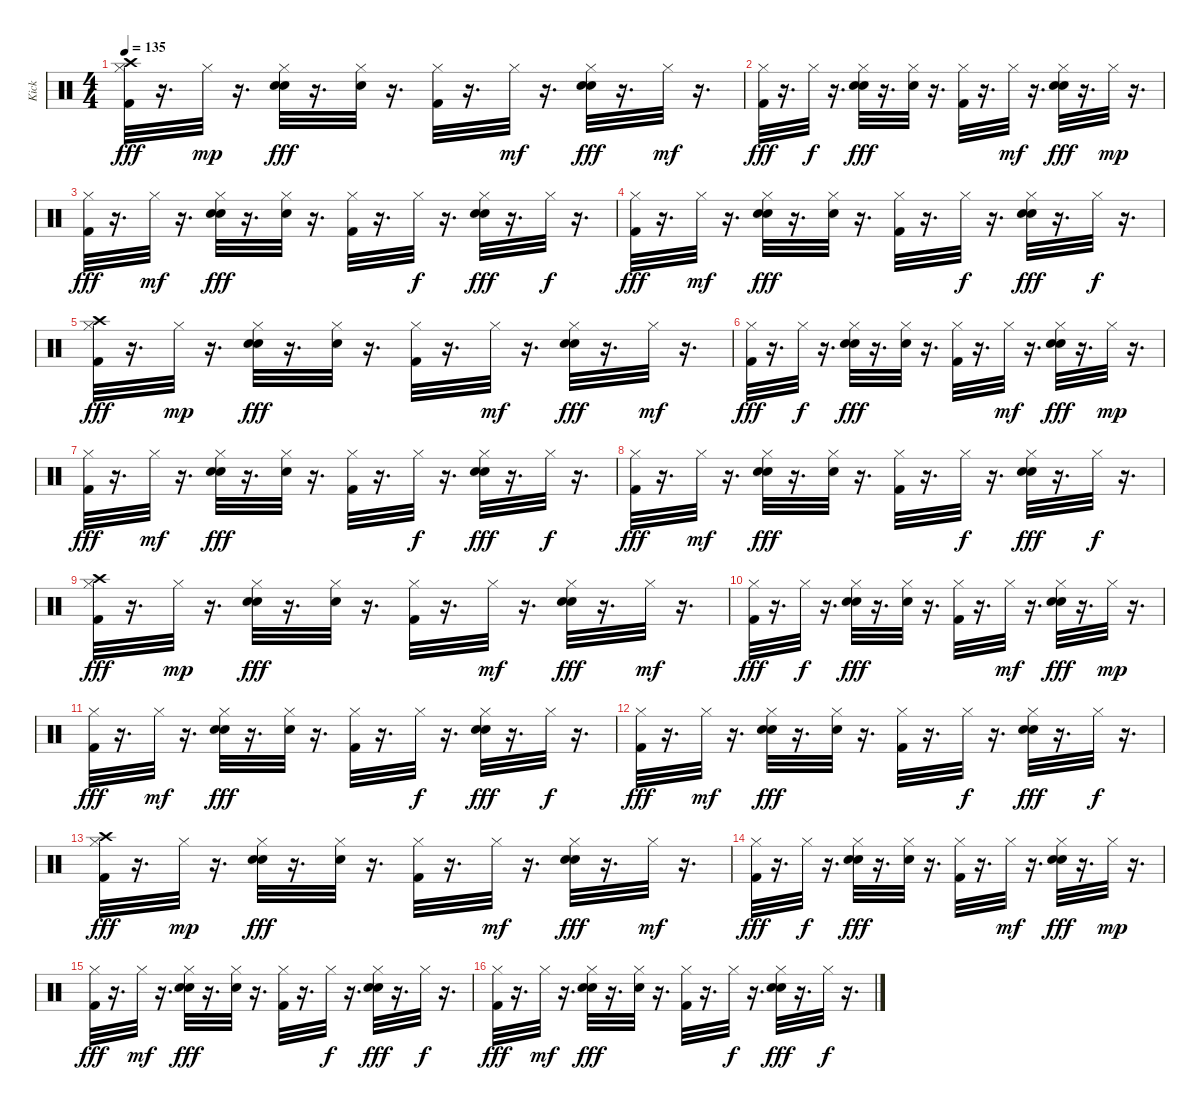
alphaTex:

\track ("Kick" "Kick") {instrument percussion}
\staff {score}
\articulation defaults
\ts (4 4)
\tempo 135
\clef neutral
\ks c
("Kick (hit) 2" "Hi-Hat (closed)" "Crash high (hit)").32{dy fff} r.16{d} "Hi-Hat (closed)".32{dy mp} r.16{d} ("Electric Snare (hit)" "Hi-Hat (closed)" "Hand Clap (hit)").32{dy fff} r.16{d} ("Hi-Hat (closed)" "Hand Clap (hit)").32 r.16{d} ("Kick (hit) 2" "Hi-Hat (closed)").32 r.16{d} "Hi-Hat (closed)".32{dy mf} r.16{d} ("Electric Snare (hit)" "Hi-Hat (closed)" "Hand Clap (hit)").32{dy fff} r.16{d} "Hi-Hat (closed)".32{dy mf} r.16{d} |
("Kick (hit) 2" "Hi-Hat (closed)").32{dy fff} r.16{d} "Hi-Hat (closed)".32{dy f} r.16{d} ("Electric Snare (hit)" "Hi-Hat (closed)" "Hand Clap (hit)").32{dy fff} r.16{d} ("Hi-Hat (closed)" "Hand Clap (hit)").32 r.16{d} ("Kick (hit) 2" "Hi-Hat (closed)").32 r.16{d} "Hi-Hat (closed)".32{dy mf} r.16{d} ("Electric Snare (hit)" "Hi-Hat (closed)" "Hand Clap (hit)").32{dy fff} r.16{d} "Hi-Hat (closed)".32{dy mp} r.16{d} |
("Kick (hit) 2" "Hi-Hat (closed)").32{dy fff} r.16{d} "Hi-Hat (closed)".32{dy mf} r.16{d} ("Electric Snare (hit)" "Hi-Hat (closed)" "Hand Clap (hit)").32{dy fff} r.16{d} ("Hi-Hat (closed)" "Hand Clap (hit)").32 r.16{d} ("Kick (hit) 2" "Hi-Hat (closed)").32 r.16{d} "Hi-Hat (closed)".32{dy f} r.16{d} ("Electric Snare (hit)" "Hi-Hat (closed)" "Hand Clap (hit)").32{dy fff} r.16{d} "Hi-Hat (closed)".32{dy f} r.16{d} |
("Kick (hit) 2" "Hi-Hat (closed)").32{dy fff} r.16{d} "Hi-Hat (closed)".32{dy mf} r.16{d} ("Electric Snare (hit)" "Hi-Hat (closed)" "Hand Clap (hit)").32{dy fff} r.16{d} ("Hi-Hat (closed)" "Hand Clap (hit)").32 r.16{d} ("Kick (hit) 2" "Hi-Hat (closed)").32 r.16{d} "Hi-Hat (closed)".32{dy f} r.16{d} ("Electric Snare (hit)" "Hi-Hat (closed)" "Hand Clap (hit)").32{dy fff} r.16{d} "Hi-Hat (closed)".32{dy f} r.16{d} |
("Kick (hit) 2" "Hi-Hat (closed)" "Crash high (hit)").32{dy fff} r.16{d} "Hi-Hat (closed)".32{dy mp} r.16{d} ("Electric Snare (hit)" "Hi-Hat (closed)" "Hand Clap (hit)").32{dy fff} r.16{d} ("Hi-Hat (closed)" "Hand Clap (hit)").32 r.16{d} ("Kick (hit) 2" "Hi-Hat (closed)").32 r.16{d} "Hi-Hat (closed)".32{dy mf} r.16{d} ("Electric Snare (hit)" "Hi-Hat (closed)" "Hand Clap (hit)").32{dy fff} r.16{d} "Hi-Hat (closed)".32{dy mf} r.16{d} |
("Kick (hit) 2" "Hi-Hat (closed)").32{dy fff} r.16{d} "Hi-Hat (closed)".32{dy f} r.16{d} ("Electric Snare (hit)" "Hi-Hat (closed)" "Hand Clap (hit)").32{dy fff} r.16{d} ("Hi-Hat (closed)" "Hand Clap (hit)").32 r.16{d} ("Kick (hit) 2" "Hi-Hat (closed)").32 r.16{d} "Hi-Hat (closed)".32{dy mf} r.16{d} ("Electric Snare (hit)" "Hi-Hat (closed)" "Hand Clap (hit)").32{dy fff} r.16{d} "Hi-Hat (closed)".32{dy mp} r.16{d} |
("Kick (hit) 2" "Hi-Hat (closed)").32{dy fff} r.16{d} "Hi-Hat (closed)".32{dy mf} r.16{d} ("Electric Snare (hit)" "Hi-Hat (closed)" "Hand Clap (hit)").32{dy fff} r.16{d} ("Hi-Hat (closed)" "Hand Clap (hit)").32 r.16{d} ("Kick (hit) 2" "Hi-Hat (closed)").32 r.16{d} "Hi-Hat (closed)".32{dy f} r.16{d} ("Electric Snare (hit)" "Hi-Hat (closed)" "Hand Clap (hit)").32{dy fff} r.16{d} "Hi-Hat (closed)".32{dy f} r.16{d} |
("Kick (hit) 2" "Hi-Hat (closed)").32{dy fff} r.16{d} "Hi-Hat (closed)".32{dy mf} r.16{d} ("Electric Snare (hit)" "Hi-Hat (closed)" "Hand Clap (hit)").32{dy fff} r.16{d} ("Hi-Hat (closed)" "Hand Clap (hit)").32 r.16{d} ("Kick (hit) 2" "Hi-Hat (closed)").32 r.16{d} "Hi-Hat (closed)".32{dy f} r.16{d} ("Electric Snare (hit)" "Hi-Hat (closed)" "Hand Clap (hit)").32{dy fff} r.16{d} "Hi-Hat (closed)".32{dy f} r.16{d} |
("Kick (hit) 2" "Hi-Hat (closed)" "Crash high (hit)").32{dy fff} r.16{d} "Hi-Hat (closed)".32{dy mp} r.16{d} ("Electric Snare (hit)" "Hi-Hat (closed)" "Hand Clap (hit)").32{dy fff} r.16{d} ("Hi-Hat (closed)" "Hand Clap (hit)").32 r.16{d} ("Kick (hit) 2" "Hi-Hat (closed)").32 r.16{d} "Hi-Hat (closed)".32{dy mf} r.16{d} ("Electric Snare (hit)" "Hi-Hat (closed)" "Hand Clap (hit)").32{dy fff} r.16{d} "Hi-Hat (closed)".32{dy mf} r.16{d} |
("Kick (hit) 2" "Hi-Hat (closed)").32{dy fff} r.16{d} "Hi-Hat (closed)".32{dy f} r.16{d} ("Electric Snare (hit)" "Hi-Hat (closed)" "Hand Clap (hit)").32{dy fff} r.16{d} ("Hi-Hat (closed)" "Hand Clap (hit)").32 r.16{d} ("Kick (hit) 2" "Hi-Hat (closed)").32 r.16{d} "Hi-Hat (closed)".32{dy mf} r.16{d} ("Electric Snare (hit)" "Hi-Hat (closed)" "Hand Clap (hit)").32{dy fff} r.16{d} "Hi-Hat (closed)".32{dy mp} r.16{d} |
("Kick (hit) 2" "Hi-Hat (closed)").32{dy fff} r.16{d} "Hi-Hat (closed)".32{dy mf} r.16{d} ("Electric Snare (hit)" "Hi-Hat (closed)" "Hand Clap (hit)").32{dy fff} r.16{d} ("Hi-Hat (closed)" "Hand Clap (hit)").32 r.16{d} ("Kick (hit) 2" "Hi-Hat (closed)").32 r.16{d} "Hi-Hat (closed)".32{dy f} r.16{d} ("Electric Snare (hit)" "Hi-Hat (closed)" "Hand Clap (hit)").32{dy fff} r.16{d} "Hi-Hat (closed)".32{dy f} r.16{d} |
("Kick (hit) 2" "Hi-Hat (closed)").32{dy fff} r.16{d} "Hi-Hat (closed)".32{dy mf} r.16{d} ("Electric Snare (hit)" "Hi-Hat (closed)" "Hand Clap (hit)").32{dy fff} r.16{d} ("Hi-Hat (closed)" "Hand Clap (hit)").32 r.16{d} ("Kick (hit) 2" "Hi-Hat (closed)").32 r.16{d} "Hi-Hat (closed)".32{dy f} r.16{d} ("Electric Snare (hit)" "Hi-Hat (closed)" "Hand Clap (hit)").32{dy fff} r.16{d} "Hi-Hat (closed)".32{dy f} r.16{d} |
("Kick (hit) 2" "Hi-Hat (closed)" "Crash high (hit)").32{dy fff} r.16{d} "Hi-Hat (closed)".32{dy mp} r.16{d} ("Electric Snare (hit)" "Hi-Hat (closed)" "Hand Clap (hit)").32{dy fff} r.16{d} ("Hi-Hat (closed)" "Hand Clap (hit)").32 r.16{d} ("Kick (hit) 2" "Hi-Hat (closed)").32 r.16{d} "Hi-Hat (closed)".32{dy mf} r.16{d} ("Electric Snare (hit)" "Hi-Hat (closed)" "Hand Clap (hit)").32{dy fff} r.16{d} "Hi-Hat (closed)".32{dy mf} r.16{d} |
("Kick (hit) 2" "Hi-Hat (closed)").32{dy fff} r.16{d} "Hi-Hat (closed)".32{dy f} r.16{d} ("Electric Snare (hit)" "Hi-Hat (closed)" "Hand Clap (hit)").32{dy fff} r.16{d} ("Hi-Hat (closed)" "Hand Clap (hit)").32 r.16{d} ("Kick (hit) 2" "Hi-Hat (closed)").32 r.16{d} "Hi-Hat (closed)".32{dy mf} r.16{d} ("Electric Snare (hit)" "Hi-Hat (closed)" "Hand Clap (hit)").32{dy fff} r.16{d} "Hi-Hat (closed)".32{dy mp} r.16{d} |
("Kick (hit) 2" "Hi-Hat (closed)").32{dy fff} r.16{d} "Hi-Hat (closed)".32{dy mf} r.16{d} ("Electric Snare (hit)" "Hi-Hat (closed)" "Hand Clap (hit)").32{dy fff} r.16{d} ("Hi-Hat (closed)" "Hand Clap (hit)").32 r.16{d} ("Kick (hit) 2" "Hi-Hat (closed)").32 r.16{d} "Hi-Hat (closed)".32{dy f} r.16{d} ("Electric Snare (hit)" "Hi-Hat (closed)" "Hand Clap (hit)").32{dy fff} r.16{d} "Hi-Hat (closed)".32{dy f} r.16{d} |
("Kick (hit) 2" "Hi-Hat (closed)").32{dy fff} r.16{d} "Hi-Hat (closed)".32{dy mf} r.16{d} ("Electric Snare (hit)" "Hi-Hat (closed)" "Hand Clap (hit)").32{dy fff} r.16{d} ("Hi-Hat (closed)" "Hand Clap (hit)").32 r.16{d} ("Kick (hit) 2" "Hi-Hat (closed)").32 r.16{d} "Hi-Hat (closed)".32{dy f} r.16{d} ("Electric Snare (hit)" "Hi-Hat (closed)" "Hand Clap (hit)").32{dy fff} r.16{d} "Hi-Hat (closed)".32{dy f} r.16{d}
